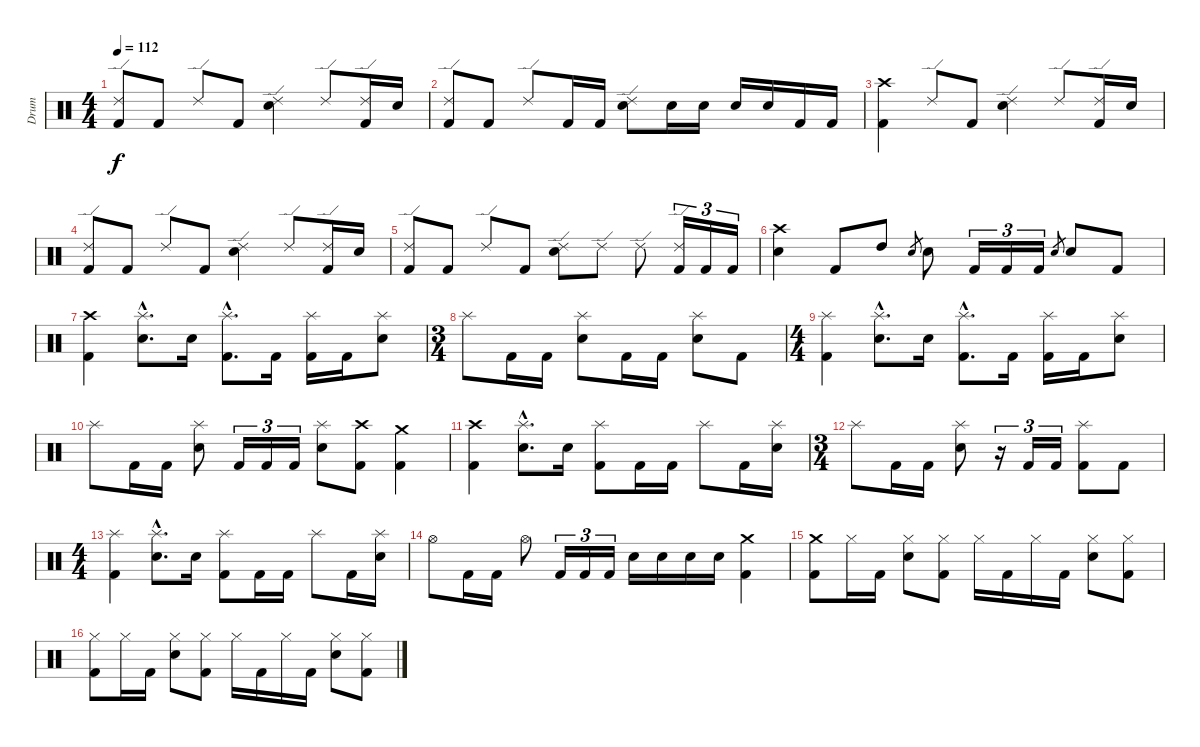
\track ("Drum" "Drum") {instrument percussion}
\staff {score}
\articulation defaults
\ts (4 4)
\tempo 112
\clef neutral
\ks c
("Ride (edge) 2" "Kick (hit) 2").8{dy f} "Kick (hit) 2".8 "Ride (edge) 2".8 "Kick (hit) 2".8 ("Ride (edge) 2" "Electric Snare (hit)").4 "Ride (edge) 2".8 ("Ride (edge) 2" "Kick (hit) 2").16 "Electric Snare (hit)".16 |
("Ride (edge) 2" "Kick (hit) 2").8 "Kick (hit) 2".8 "Ride (edge) 2".8 "Kick (hit) 2".16 "Kick (hit) 2".16 ("Ride (edge) 2" "Electric Snare (hit)").8 "Electric Snare (hit)".16 "Electric Snare (hit)".16 "Electric Snare (hit)".16 "Electric Snare (hit)".16 "Kick (hit) 2".16 "Kick (hit) 2".16 |
("Crash high (hit)" "Kick (hit) 2").4 "Ride (edge) 2".8 "Kick (hit) 2".8 ("Ride (edge) 2" "Electric Snare (hit)").4 "Ride (edge) 2".8 ("Ride (edge) 2" "Kick (hit) 2").16 "Electric Snare (hit)".16 |
("Ride (edge) 2" "Kick (hit) 2").8 "Kick (hit) 2".8 "Ride (edge) 2".8 "Kick (hit) 2".8 ("Ride (edge) 2" "Electric Snare (hit)").4 "Ride (edge) 2".8 ("Ride (edge) 2" "Kick (hit) 2").16 "Electric Snare (hit)".16 |
("Ride (edge) 2" "Kick (hit) 2").8 "Kick (hit) 2".8 "Ride (edge) 2".8 "Kick (hit) 2".8 ("Ride (edge) 2" "Electric Snare (hit)").8 "Ride (edge) 2".8 "Ride (edge) 2".8 ("Ride (edge) 2" "Kick (hit) 2").16{tu (3 2)} "Kick (hit) 2".16{tu (3 2)} "Kick (hit) 2".16{tu (3 2)} |
("Crash high (hit)" "Electric Snare (hit)").4 "Kick (hit) 2".8 "High Tom (hit)".8 "Electric Snare (hit)".8{gr} "Electric Snare (hit)".8 "Kick (hit) 2".16{tu (3 2)} "Kick (hit) 2".16{tu (3 2)} "Kick (hit) 2".16{tu (3 2)} "Electric Snare (hit)".8{gr} "Electric Snare (hit)".8 "Kick (hit) 2".8 |
("Crash high (hit)" "Kick (hit) 2").4 ("Splash (hit)"{hac} "Electric Snare (hit)"{hac}).8{d} "Electric Snare (hit)".16 ("Splash (hit)"{hac} "Kick (hit) 2"{hac}).8{d} "Kick (hit) 2".16 ("Splash (hit)" "Kick (hit) 2").16 "Kick (hit) 2".16 ("Splash (hit)" "Electric Snare (hit)").8 |
\ts (3 4)
"Splash (hit)".8 "Kick (hit) 2".16 "Kick (hit) 2".16 ("Splash (hit)" "Electric Snare (hit)").8 "Kick (hit) 2".16 "Kick (hit) 2".16 ("Splash (hit)" "Electric Snare (hit)").8 "Kick (hit) 2".8 |
\ts (4 4)
("Splash (hit)" "Kick (hit) 2").4 ("Splash (hit)"{hac} "Electric Snare (hit)"{hac}).8{d} "Electric Snare (hit)".16 ("Splash (hit)"{hac} "Kick (hit) 2"{hac}).8{d} "Kick (hit) 2".16 ("Splash (hit)" "Kick (hit) 2").16 "Kick (hit) 2".16 ("Splash (hit)" "Electric Snare (hit)").8 |
"Splash (hit)".8 "Kick (hit) 2".16 "Kick (hit) 2".16 ("Splash (hit)" "Electric Snare (hit)").8 "Kick (hit) 2".16{tu (3 2)} "Kick (hit) 2".16{tu (3 2)} "Kick (hit) 2".16{tu (3 2)} ("Splash (hit)" "Electric Snare (hit)").8 ("Crash high (hit)" "Kick (hit) 2").8 ("Crash medium (hit)" "Kick (hit) 2").4 |
("Crash high (hit)" "Kick (hit) 2").4 ("Splash (hit)"{hac} "Electric Snare (hit)"{hac}).8{d} "Electric Snare (hit)".16 ("Splash (hit)" "Kick (hit) 2").8 "Kick (hit) 2".16 "Kick (hit) 2".16 "Splash (hit)".8 "Kick (hit) 2".16 ("Splash (hit)" "Electric Snare (hit)").16 |
\ts (3 4)
"Splash (hit)".8 "Kick (hit) 2".16 "Kick (hit) 2".16 ("Splash (hit)" "Electric Snare (hit)").8 r.16{tu (3 2)} "Kick (hit) 2".16{tu (3 2)} "Kick (hit) 2".16{tu (3 2)} ("Splash (hit)" "Kick (hit) 2").8 "Kick (hit) 2".8 |
\ts (4 4)
("Splash (hit)" "Kick (hit) 2").4 ("Splash (hit)"{hac} "Electric Snare (hit)"{hac}).8{d} "Electric Snare (hit)".16 ("Splash (hit)" "Kick (hit) 2").8 "Kick (hit) 2".16 "Kick (hit) 2".16 "Splash (hit)".8 "Kick (hit) 2".16 ("Splash (hit)" "Electric Snare (hit)").16 |
"Hi-Hat (open)".8 "Kick (hit) 2".16 "Kick (hit) 2".16 "Hi-Hat (open)".8 "Kick (hit) 2".16{tu (3 2)} "Kick (hit) 2".16{tu (3 2)} "Kick (hit) 2".16{tu (3 2)} "Electric Snare (hit)".16 "Electric Snare (hit)".16 "Electric Snare (hit)".16 "Electric Snare (hit)".16 ("Crash medium (hit)" "Kick (hit) 2").4 |
("Crash medium (hit)" "Kick (hit) 2").8 "Hi-Hat (closed)".16 "Kick (hit) 2".16 ("Hi-Hat (closed)" "Electric Snare (hit)").8 ("Hi-Hat (closed)" "Kick (hit) 2").8 "Hi-Hat (closed)".16 "Kick (hit) 2".16 "Hi-Hat (closed)".16 "Kick (hit) 2".16 ("Hi-Hat (closed)" "Electric Snare (hit)").8 ("Hi-Hat (closed)" "Kick (hit) 2").8 |
("Hi-Hat (closed)" "Kick (hit) 2").8 "Hi-Hat (closed)".16 "Kick (hit) 2".16 ("Hi-Hat (closed)" "Electric Snare (hit)").8 ("Hi-Hat (closed)" "Kick (hit) 2").8 "Hi-Hat (closed)".16 "Kick (hit) 2".16 "Hi-Hat (closed)".16 "Kick (hit) 2".16 ("Hi-Hat (closed)" "Electric Snare (hit)").8 ("Hi-Hat (closed)" "Kick (hit) 2").8
